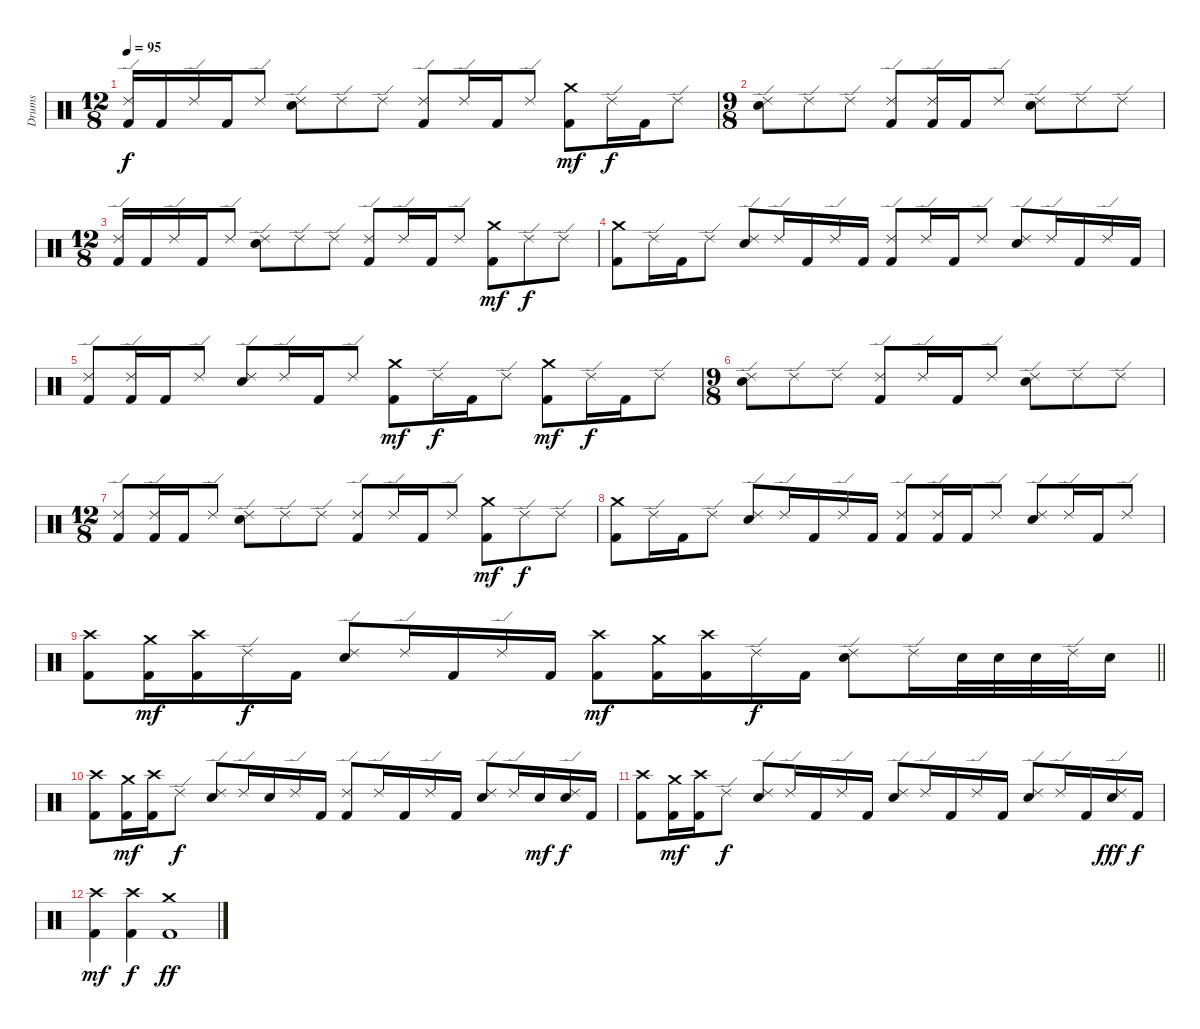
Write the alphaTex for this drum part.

\track ("Drums" "Drums") {instrument percussion}
\staff {score}
\articulation defaults
\ts (12 8)
\tempo 95
\clef neutral
\ks c
("Ride (edge) 2" "Kick (hit) 2").16{dy f} "Kick (hit) 2".16 "Ride (edge) 2".16 "Kick (hit) 2".16 "Ride (edge) 2".8 ("Ride (edge) 2" "Snare (hit) 2").8 "Ride (edge) 2".8 "Ride (edge) 2".8 ("Ride (edge) 2" "Kick (hit) 2").8 "Ride (edge) 2".16 "Kick (hit) 2".16 "Ride (edge) 2".8 ("Crash medium (hit)" "Kick (hit) 2").8{dy mf} "Ride (edge) 2".16{dy f} "Kick (hit) 2".16 "Ride (edge) 2".8 |
\ts (9 8)
("Ride (edge) 2" "Snare (hit) 2").8 "Ride (edge) 2".8 "Ride (edge) 2".8 ("Ride (edge) 2" "Kick (hit) 2").8 ("Ride (edge) 2" "Kick (hit) 2").16 "Kick (hit) 2".16 "Ride (edge) 2".8 ("Ride (edge) 2" "Snare (hit) 2").8 "Ride (edge) 2".8 "Ride (edge) 2".8 |
\ts (12 8)
("Ride (edge) 2" "Kick (hit) 2").16 "Kick (hit) 2".16 "Ride (edge) 2".16 "Kick (hit) 2".16 "Ride (edge) 2".8 ("Ride (edge) 2" "Snare (hit) 2").8 "Ride (edge) 2".8 "Ride (edge) 2".8 ("Ride (edge) 2" "Kick (hit) 2").8 "Ride (edge) 2".16 "Kick (hit) 2".16 "Ride (edge) 2".8 ("Crash medium (hit)" "Kick (hit) 2").8{dy mf} "Ride (edge) 2".8{dy f} "Ride (edge) 2".8 |
("Crash medium (hit)" "Kick (hit) 2").8 "Ride (edge) 2".16 "Kick (hit) 2".16 "Ride (edge) 2".8 ("Ride (edge) 2" "Snare (hit) 2").8 "Ride (edge) 2".16 "Kick (hit) 2".16 "Ride (edge) 2".16 "Kick (hit) 2".16 ("Ride (edge) 2" "Kick (hit) 2").8 "Ride (edge) 2".16 "Kick (hit) 2".16 "Ride (edge) 2".8 ("Ride (edge) 2" "Snare (hit) 2").8 "Ride (edge) 2".16 "Kick (hit) 2".16 "Ride (edge) 2".16 "Kick (hit) 2".16 |
("Ride (edge) 2" "Kick (hit) 2").8 ("Ride (edge) 2" "Kick (hit) 2").16 "Kick (hit) 2".16 "Ride (edge) 2".8 ("Ride (edge) 2" "Snare (hit) 2").8 "Ride (edge) 2".16 "Kick (hit) 2".16 "Ride (edge) 2".8 ("Crash medium (hit)" "Kick (hit) 2").8{dy mf} "Ride (edge) 2".16{dy f} "Kick (hit) 2".16 "Ride (edge) 2".8 ("Crash medium (hit)" "Kick (hit) 2").8{dy mf} "Ride (edge) 2".16{dy f} "Kick (hit) 2".16 "Ride (edge) 2".8 |
\ts (9 8)
("Ride (edge) 2" "Snare (hit) 2").8 "Ride (edge) 2".8 "Ride (edge) 2".8 ("Ride (edge) 2" "Kick (hit) 2").8 "Ride (edge) 2".16 "Kick (hit) 2".16 "Ride (edge) 2".8 ("Ride (edge) 2" "Snare (hit) 2").8 "Ride (edge) 2".8 "Ride (edge) 2".8 |
\ts (12 8)
("Ride (edge) 2" "Kick (hit) 2").8 ("Ride (edge) 2" "Kick (hit) 2").16 "Kick (hit) 2".16 "Ride (edge) 2".8 ("Ride (edge) 2" "Snare (hit) 2").8 "Ride (edge) 2".8 "Ride (edge) 2".8 ("Ride (edge) 2" "Kick (hit) 2").8 "Ride (edge) 2".16 "Kick (hit) 2".16 "Ride (edge) 2".8 ("Crash medium (hit)" "Kick (hit) 2").8{dy mf} "Ride (edge) 2".8{dy f} "Ride (edge) 2".8 |
("Crash medium (hit)" "Kick (hit) 2").8 "Ride (edge) 2".16 "Kick (hit) 2".16 "Ride (edge) 2".8 ("Ride (edge) 2" "Snare (hit) 2").8 "Ride (edge) 2".16 "Kick (hit) 2".16 "Ride (edge) 2".16 "Kick (hit) 2".16 ("Ride (edge) 2" "Kick (hit) 2").8 ("Ride (edge) 2" "Kick (hit) 2").16 "Kick (hit) 2".16 "Ride (edge) 2".8 ("Ride (edge) 2" "Snare (hit) 2").8 "Ride (edge) 2".16 "Kick (hit) 2".16 "Ride (edge) 2".8 |
\barLineRight lightlight
("Crash high (hit)" "Kick (hit) 2").8 ("Crash medium (hit)" "Kick (hit) 2").16{dy mf} ("Crash high (hit)" "Kick (hit) 2").16 "Ride (edge) 2".16{dy f} "Kick (hit) 2".16 ("Ride (edge) 2" "Snare (hit) 2").8 "Ride (edge) 2".16 "Kick (hit) 2".16 "Ride (edge) 2".16 "Kick (hit) 2".16 ("Crash high (hit)" "Kick (hit) 2").8{dy mf} ("Crash medium (hit)" "Kick (hit) 2").16 ("Crash high (hit)" "Kick (hit) 2").16 "Ride (edge) 2".16{dy f} "Kick (hit) 2".16 ("Ride (edge) 2" "Snare (hit) 2").8 "Ride (edge) 2".16 "Snare (hit) 2".32 "Snare (hit) 2".32 "Snare (hit) 2".32 "Ride (edge) 2".32 "Snare (hit) 2".16 |
\section ("" "")
("Crash high (hit)" "Kick (hit) 2").8 ("Crash medium (hit)" "Kick (hit) 2").16{dy mf} ("Crash high (hit)" "Kick (hit) 2").16 "Ride (edge) 2".8{dy f} ("Ride (edge) 2" "Snare (hit) 2").8 "Ride (edge) 2".16 "Snare (hit) 2".16 "Ride (edge) 2".16 "Kick (hit) 2".16 ("Ride (edge) 2" "Kick (hit) 2").8 "Ride (edge) 2".16 "Kick (hit) 2".16 "Ride (edge) 2".16 "Kick (hit) 2".16 ("Ride (edge) 2" "Snare (hit) 2").8 "Ride (edge) 2".16 "Snare (hit) 2".16{dy mf} ("Ride (edge) 2" "Snare (hit) 2").16{dy f} "Kick (hit) 2".16 |
("Crash high (hit)" "Kick (hit) 2").8 ("Crash medium (hit)" "Kick (hit) 2").16{dy mf} ("Crash high (hit)" "Kick (hit) 2").16 "Ride (edge) 2".8{dy f} ("Ride (edge) 2" "Snare (hit) 2").8 "Ride (edge) 2".16 "Kick (hit) 2".16 "Ride (edge) 2".16 "Kick (hit) 2".16 ("Ride (edge) 2" "Snare (hit) 2").8 "Ride (edge) 2".16 "Kick (hit) 2".16 "Ride (edge) 2".16 "Kick (hit) 2".16 ("Ride (edge) 2" "Snare (hit) 2").8 "Ride (edge) 2".16 "Kick (hit) 2".16 ("Ride (edge) 2" "Snare (hit) 2").16{dy fff} "Kick (hit) 2".16{dy f} |
("Crash high (hit)" "Kick (hit) 2").4{dy mf} ("Crash high (hit)" "Kick (hit) 2").4{dy f} ("Crash medium (hit)" "Kick (hit) 2").1{dy ff}
